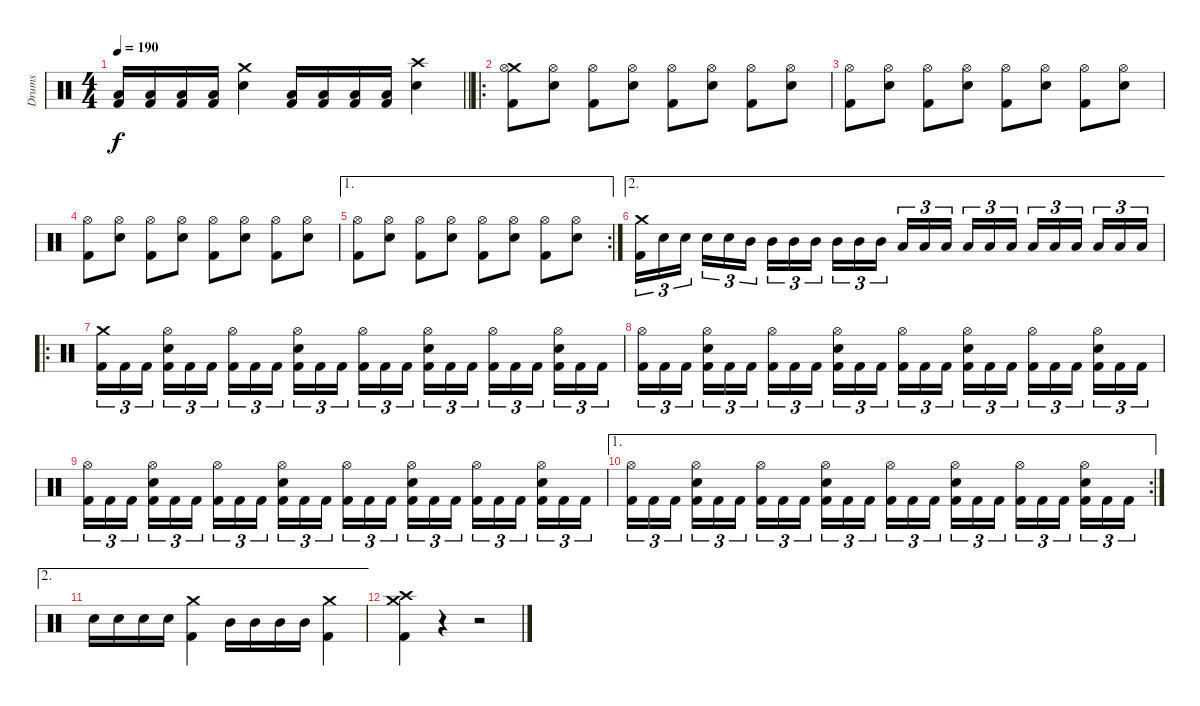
\track ("Drums" "Drums") {instrument percussion}
\staff {score}
\articulation defaults
\ts (4 4)
\tempo 190
\clef neutral
\barLineRight lightlight
\ks c
("Low Tom (hit)" "Kick (hit) 2").16{dy f} ("Low Tom (hit)" "Kick (hit) 2").16 ("Low Floor Tom (hit)" "Kick (hit) 2").16 ("Low Floor Tom (hit)" "Kick (hit) 2").16 ("Crash medium (hit)" "Snare (hit) 2").4 ("Low Tom (hit)" "Kick (hit) 2").16 ("Low Tom (hit)" "Kick (hit) 2").16 ("Low Floor Tom (hit)" "Kick (hit) 2").16 ("Low Floor Tom (hit)" "Kick (hit) 2").16 ("Crash high (hit)" "Snare (hit) 2").4 |
\ro
("Crash medium (hit)" "Hi-Hat (open)" "Kick (hit) 2").8 ("Hi-Hat (open)" "Snare (hit) 2").8 ("Hi-Hat (open)" "Kick (hit) 2").8 ("Hi-Hat (open)" "Snare (hit) 2").8 ("Hi-Hat (open)" "Kick (hit) 2").8 ("Hi-Hat (open)" "Snare (hit) 2").8 ("Hi-Hat (open)" "Kick (hit) 2").8 ("Hi-Hat (open)" "Snare (hit) 2").8 |
("Hi-Hat (open)" "Kick (hit) 2").8 ("Hi-Hat (open)" "Snare (hit) 2").8 ("Hi-Hat (open)" "Kick (hit) 2").8 ("Hi-Hat (open)" "Snare (hit) 2").8 ("Hi-Hat (open)" "Kick (hit) 2").8 ("Hi-Hat (open)" "Snare (hit) 2").8 ("Hi-Hat (open)" "Kick (hit) 2").8 ("Hi-Hat (open)" "Snare (hit) 2").8 |
("Hi-Hat (open)" "Kick (hit) 2").8 ("Hi-Hat (open)" "Snare (hit) 2").8 ("Hi-Hat (open)" "Kick (hit) 2").8 ("Hi-Hat (open)" "Snare (hit) 2").8 ("Hi-Hat (open)" "Kick (hit) 2").8 ("Hi-Hat (open)" "Snare (hit) 2").8 ("Hi-Hat (open)" "Kick (hit) 2").8 ("Hi-Hat (open)" "Snare (hit) 2").8 |
\ae 1
\rc 2
("Hi-Hat (open)" "Kick (hit) 2").8 ("Hi-Hat (open)" "Snare (hit) 2").8 ("Hi-Hat (open)" "Kick (hit) 2").8 ("Hi-Hat (open)" "Snare (hit) 2").8 ("Hi-Hat (open)" "Kick (hit) 2").8 ("Hi-Hat (open)" "Snare (hit) 2").8 ("Hi-Hat (open)" "Kick (hit) 2").8 ("Hi-Hat (open)" "Snare (hit) 2").8 |
\ae 2
("Crash medium (hit)" "Kick (hit) 2").16{tu (3 2)} "Snare (hit) 2".16{tu (3 2)} "Snare (hit) 2".16{tu (3 2) beam splitsecondary} "Snare (hit) 2".16{tu (3 2)} "Snare (hit) 2".16{tu (3 2)} "Mid Tom (hit)".16{tu (3 2)} "Mid Tom (hit)".16{tu (3 2)} "Mid Tom (hit)".16{tu (3 2)} "Mid Tom (hit)".16{tu (3 2) beam splitsecondary} "Mid Tom (hit)".16{tu (3 2)} "Mid Tom (hit)".16{tu (3 2)} "Mid Tom (hit)".16{tu (3 2)} "Low Tom (hit)".16{tu (3 2)} "Low Tom (hit)".16{tu (3 2)} "Low Tom (hit)".16{tu (3 2) beam splitsecondary} "Low Tom (hit)".16{tu (3 2)} "Low Tom (hit)".16{tu (3 2)} "Low Tom (hit)".16{tu (3 2)} "Low Floor Tom (hit)".16{tu (3 2)} "Low Floor Tom (hit)".16{tu (3 2)} "Low Floor Tom (hit)".16{tu (3 2) beam splitsecondary} "Low Floor Tom (hit)".16{tu (3 2)} "Low Floor Tom (hit)".16{tu (3 2)} "Low Floor Tom (hit)".16{tu (3 2)} |
\ro
("Crash medium (hit)" "Kick (hit) 2").16{tu (3 2)} "Kick (hit) 2".16{tu (3 2)} "Kick (hit) 2".16{tu (3 2) beam splitsecondary} ("Hi-Hat (open)" "Snare (hit) 2" "Kick (hit) 2").16{tu (3 2)} "Kick (hit) 2".16{tu (3 2)} "Kick (hit) 2".16{tu (3 2)} ("Hi-Hat (open)" "Kick (hit) 2").16{tu (3 2)} "Kick (hit) 2".16{tu (3 2)} "Kick (hit) 2".16{tu (3 2) beam splitsecondary} ("Hi-Hat (open)" "Snare (hit) 2" "Kick (hit) 2").16{tu (3 2)} "Kick (hit) 2".16{tu (3 2)} "Kick (hit) 2".16{tu (3 2)} ("Hi-Hat (open)" "Kick (hit) 2").16{tu (3 2)} "Kick (hit) 2".16{tu (3 2)} "Kick (hit) 2".16{tu (3 2) beam splitsecondary} ("Hi-Hat (open)" "Snare (hit) 2" "Kick (hit) 2").16{tu (3 2)} "Kick (hit) 2".16{tu (3 2)} "Kick (hit) 2".16{tu (3 2)} ("Hi-Hat (open)" "Kick (hit) 2").16{tu (3 2)} "Kick (hit) 2".16{tu (3 2)} "Kick (hit) 2".16{tu (3 2) beam splitsecondary} ("Hi-Hat (open)" "Snare (hit) 2" "Kick (hit) 2").16{tu (3 2)} "Kick (hit) 2".16{tu (3 2)} "Kick (hit) 2".16{tu (3 2)} |
("Hi-Hat (open)" "Kick (hit) 2").16{tu (3 2)} "Kick (hit) 2".16{tu (3 2)} "Kick (hit) 2".16{tu (3 2) beam splitsecondary} ("Hi-Hat (open)" "Snare (hit) 2" "Kick (hit) 2").16{tu (3 2)} "Kick (hit) 2".16{tu (3 2)} "Kick (hit) 2".16{tu (3 2)} ("Hi-Hat (open)" "Kick (hit) 2").16{tu (3 2)} "Kick (hit) 2".16{tu (3 2)} "Kick (hit) 2".16{tu (3 2) beam splitsecondary} ("Hi-Hat (open)" "Snare (hit) 2" "Kick (hit) 2").16{tu (3 2)} "Kick (hit) 2".16{tu (3 2)} "Kick (hit) 2".16{tu (3 2)} ("Hi-Hat (open)" "Kick (hit) 2").16{tu (3 2)} "Kick (hit) 2".16{tu (3 2)} "Kick (hit) 2".16{tu (3 2) beam splitsecondary} ("Hi-Hat (open)" "Snare (hit) 2" "Kick (hit) 2").16{tu (3 2)} "Kick (hit) 2".16{tu (3 2)} "Kick (hit) 2".16{tu (3 2)} ("Hi-Hat (open)" "Kick (hit) 2").16{tu (3 2)} "Kick (hit) 2".16{tu (3 2)} "Kick (hit) 2".16{tu (3 2) beam splitsecondary} ("Hi-Hat (open)" "Snare (hit) 2" "Kick (hit) 2").16{tu (3 2)} "Kick (hit) 2".16{tu (3 2)} "Kick (hit) 2".16{tu (3 2)} |
("Hi-Hat (open)" "Kick (hit) 2").16{tu (3 2)} "Kick (hit) 2".16{tu (3 2)} "Kick (hit) 2".16{tu (3 2) beam splitsecondary} ("Hi-Hat (open)" "Snare (hit) 2" "Kick (hit) 2").16{tu (3 2)} "Kick (hit) 2".16{tu (3 2)} "Kick (hit) 2".16{tu (3 2)} ("Hi-Hat (open)" "Kick (hit) 2").16{tu (3 2)} "Kick (hit) 2".16{tu (3 2)} "Kick (hit) 2".16{tu (3 2) beam splitsecondary} ("Hi-Hat (open)" "Snare (hit) 2" "Kick (hit) 2").16{tu (3 2)} "Kick (hit) 2".16{tu (3 2)} "Kick (hit) 2".16{tu (3 2)} ("Hi-Hat (open)" "Kick (hit) 2").16{tu (3 2)} "Kick (hit) 2".16{tu (3 2)} "Kick (hit) 2".16{tu (3 2) beam splitsecondary} ("Hi-Hat (open)" "Snare (hit) 2" "Kick (hit) 2").16{tu (3 2)} "Kick (hit) 2".16{tu (3 2)} "Kick (hit) 2".16{tu (3 2)} ("Hi-Hat (open)" "Kick (hit) 2").16{tu (3 2)} "Kick (hit) 2".16{tu (3 2)} "Kick (hit) 2".16{tu (3 2) beam splitsecondary} ("Hi-Hat (open)" "Snare (hit) 2" "Kick (hit) 2").16{tu (3 2)} "Kick (hit) 2".16{tu (3 2)} "Kick (hit) 2".16{tu (3 2)} |
\ae 1
\rc 2
("Hi-Hat (open)" "Kick (hit) 2").16{tu (3 2)} "Kick (hit) 2".16{tu (3 2)} "Kick (hit) 2".16{tu (3 2) beam splitsecondary} ("Hi-Hat (open)" "Snare (hit) 2" "Kick (hit) 2").16{tu (3 2)} "Kick (hit) 2".16{tu (3 2)} "Kick (hit) 2".16{tu (3 2)} ("Hi-Hat (open)" "Kick (hit) 2").16{tu (3 2)} "Kick (hit) 2".16{tu (3 2)} "Kick (hit) 2".16{tu (3 2) beam splitsecondary} ("Hi-Hat (open)" "Snare (hit) 2" "Kick (hit) 2").16{tu (3 2)} "Kick (hit) 2".16{tu (3 2)} "Kick (hit) 2".16{tu (3 2)} ("Hi-Hat (open)" "Kick (hit) 2").16{tu (3 2)} "Kick (hit) 2".16{tu (3 2)} "Kick (hit) 2".16{tu (3 2) beam splitsecondary} ("Hi-Hat (open)" "Snare (hit) 2" "Kick (hit) 2").16{tu (3 2)} "Kick (hit) 2".16{tu (3 2)} "Kick (hit) 2".16{tu (3 2)} ("Hi-Hat (open)" "Kick (hit) 2").16{tu (3 2)} "Kick (hit) 2".16{tu (3 2)} "Kick (hit) 2".16{tu (3 2) beam splitsecondary} ("Hi-Hat (open)" "Snare (hit) 2" "Kick (hit) 2").16{tu (3 2)} "Kick (hit) 2".16{tu (3 2)} "Kick (hit) 2".16{tu (3 2)} |
\ae 2 "Snare (hit) 2".16 "Snare (hit) 2".16 "Snare (hit) 2".16 "Snare (hit) 2".16
("Crash medium (hit)" "Kick (hit) 2").4 "Mid Tom (hit)".16 "Mid Tom (hit)".16 "Mid Tom (hit)".16 "Mid Tom (hit)".16 ("Crash medium (hit)" "Kick (hit) 2").4 |
("Crash high (hit)" "Crash medium (hit)" "Kick (hit) 2").4 r.4 r.2
